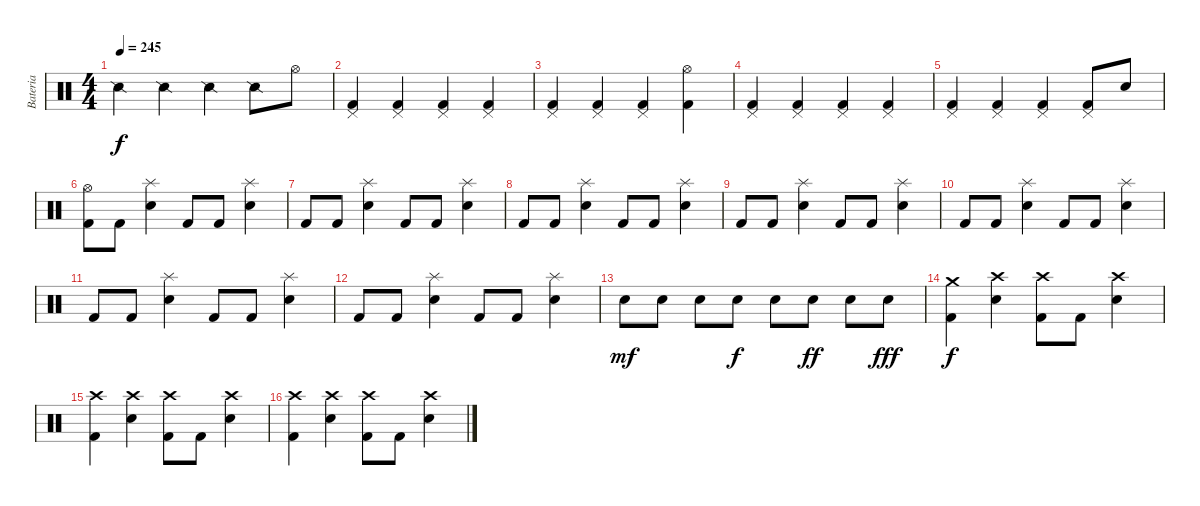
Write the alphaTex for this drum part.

\track ("Bateria" "Bateria") {instrument percussion}
\staff {score}
\articulation defaults
\ts (4 4)
\tempo 245
\clef neutral
\ks c "Snare (side stick) 2".4{dy f} "Snare (side stick) 2".4 "Snare (side stick) 2".4 "Snare (side stick) 2".8 "Hi-Hat (open)".8
|
("Pedal Hi-Hat (hit)" "Kick (hit) 2").4 ("Pedal Hi-Hat (hit)" "Kick (hit) 2").4 ("Pedal Hi-Hat (hit)" "Kick (hit) 2").4 ("Pedal Hi-Hat (hit)" "Kick (hit) 2").4 |
("Pedal Hi-Hat (hit)" "Kick (hit) 2").4 ("Pedal Hi-Hat (hit)" "Kick (hit) 2").4 ("Pedal Hi-Hat (hit)" "Kick (hit) 2").4 ("Hi-Hat (open)" "Kick (hit) 2").4 |
("Pedal Hi-Hat (hit)" "Kick (hit) 2").4 ("Pedal Hi-Hat (hit)" "Kick (hit) 2").4 ("Pedal Hi-Hat (hit)" "Kick (hit) 2").4 ("Pedal Hi-Hat (hit)" "Kick (hit) 2").4 |
("Pedal Hi-Hat (hit)" "Kick (hit) 2").4 ("Pedal Hi-Hat (hit)" "Kick (hit) 2").4 ("Pedal Hi-Hat (hit)" "Kick (hit) 2").4 ("Pedal Hi-Hat (hit)" "Kick (hit) 2").8 "Electric Snare (hit)".8 |
("Hi-Hat (open)" "Kick (hit) 2").8 "Kick (hit) 2".8 ("Splash (hit)" "Electric Snare (hit)").4 "Kick (hit) 2".8 "Kick (hit) 2".8 ("Splash (hit)" "Electric Snare (hit)").4 |
"Kick (hit) 2".8 "Kick (hit) 2".8 ("Splash (hit)" "Electric Snare (hit)").4 "Kick (hit) 2".8 "Kick (hit) 2".8 ("Splash (hit)" "Electric Snare (hit)").4 |
"Kick (hit) 2".8 "Kick (hit) 2".8 ("Splash (hit)" "Electric Snare (hit)").4 "Kick (hit) 2".8 "Kick (hit) 2".8 ("Splash (hit)" "Electric Snare (hit)").4 |
"Kick (hit) 2".8 "Kick (hit) 2".8 ("Splash (hit)" "Electric Snare (hit)").4 "Kick (hit) 2".8 "Kick (hit) 2".8 ("Splash (hit)" "Electric Snare (hit)").4 |
"Kick (hit) 2".8 "Kick (hit) 2".8 ("Splash (hit)" "Electric Snare (hit)").4 "Kick (hit) 2".8 "Kick (hit) 2".8 ("Splash (hit)" "Electric Snare (hit)").4 |
"Kick (hit) 2".8 "Kick (hit) 2".8 ("Splash (hit)" "Electric Snare (hit)").4 "Kick (hit) 2".8 "Kick (hit) 2".8 ("Splash (hit)" "Electric Snare (hit)").4 |
"Kick (hit) 2".8 "Kick (hit) 2".8 ("Splash (hit)" "Electric Snare (hit)").4 "Kick (hit) 2".8 "Kick (hit) 2".8 ("Splash (hit)" "Electric Snare (hit)").4 |
"Electric Snare (hit)".8{dy mf} "Electric Snare (hit)".8 "Electric Snare (hit)".8 "Electric Snare (hit)".8{dy f} "Electric Snare (hit)".8 "Electric Snare (hit)".8{dy ff} "Electric Snare (hit)".8 "Electric Snare (hit)".8{dy fff} |
("Crash medium (hit)" "Kick (hit) 2").4{dy f} ("Crash high (hit)" "Electric Snare (hit)").4 ("Crash high (hit)" "Kick (hit) 2").8 "Kick (hit) 2".8 ("Crash high (hit)" "Electric Snare (hit)").4 |
("Crash high (hit)" "Kick (hit) 2").4 ("Crash high (hit)" "Electric Snare (hit)").4 ("Crash high (hit)" "Kick (hit) 2").8 "Kick (hit) 2".8 ("Crash high (hit)" "Electric Snare (hit)").4 |
("Crash high (hit)" "Kick (hit) 2").4 ("Crash high (hit)" "Electric Snare (hit)").4 ("Crash high (hit)" "Kick (hit) 2").8 "Kick (hit) 2".8 ("Crash high (hit)" "Electric Snare (hit)").4
